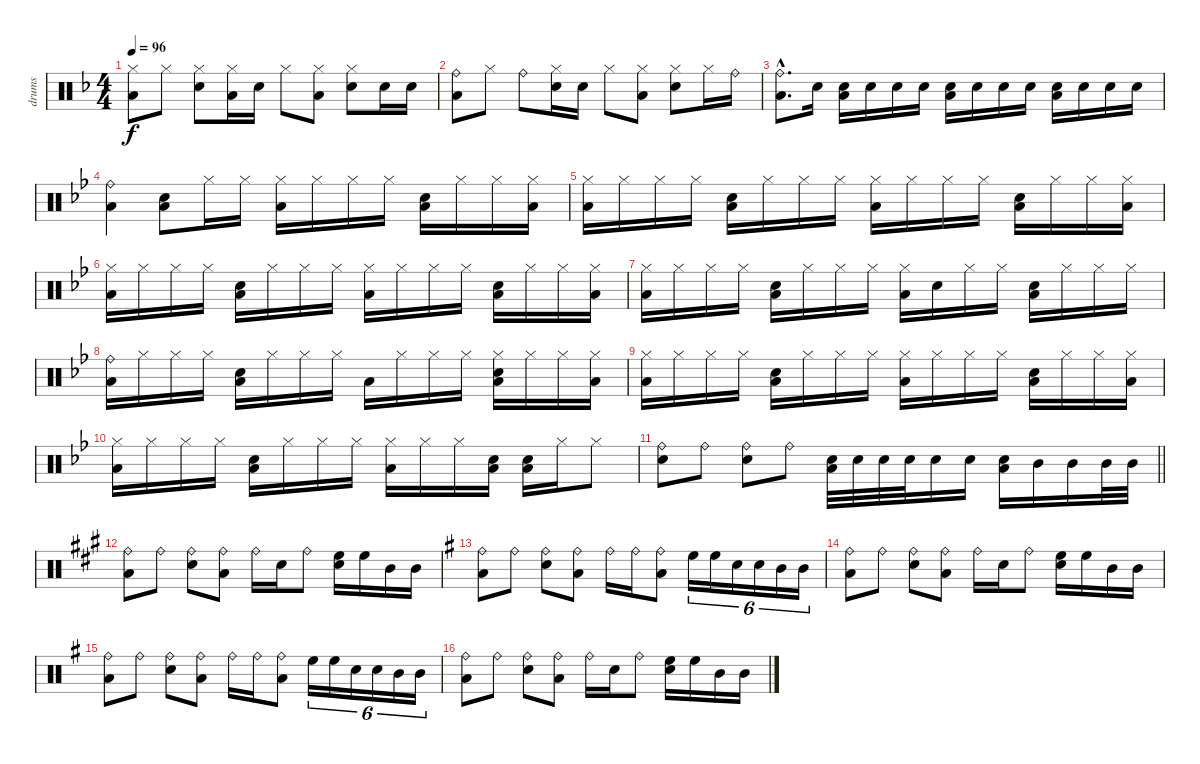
\track ("drums" "drums") {instrument percussion}
\staff {score}
\articulation defaults
\ts (4 4)
\tempo 96
\clef neutral
\ks f
("Hi-Hat (closed)" "Low Floor Tom (hit)").8{dy f} "Hi-Hat (closed)".8 ("Hi-Hat (closed)" "Electric Snare (hit)").8 ("Hi-Hat (closed)" "Low Floor Tom (hit)").16 "Electric Snare (hit)".16 "Hi-Hat (closed)".8 ("Hi-Hat (closed)" "Low Floor Tom (hit)").8 ("Hi-Hat (closed)" "Electric Snare (hit)").8 "Electric Snare (hit)".16 "Electric Snare (hit)".16 |
("Ride (bell)" "Low Floor Tom (hit)").8 "Hi-Hat (closed)".8 "Ride (bell)".8 ("Hi-Hat (closed)" "Electric Snare (hit)").16 "Electric Snare (hit)".16 "Hi-Hat (closed)".8 ("Hi-Hat (closed)" "Low Floor Tom (hit)").8 ("Hi-Hat (closed)" "Electric Snare (hit)").8 "Hi-Hat (closed)".16 "Ride (bell)".16 |
("Ride (bell)"{hac} "Low Floor Tom (hit)"{hac}).8{d} "Electric Snare (hit)".16 ("Electric Snare (hit)" "Low Floor Tom (hit)").16 "Electric Snare (hit)".16 "Electric Snare (hit)".16 "Electric Snare (hit)".16 ("Electric Snare (hit)" "Low Floor Tom (hit)").16 "Electric Snare (hit)".16 "Electric Snare (hit)".16 "Electric Snare (hit)".16 ("Electric Snare (hit)" "Low Floor Tom (hit)").16 "Electric Snare (hit)".16 "Electric Snare (hit)".16 "Electric Snare (hit)".16 |
\ks bb
("Ride (bell)" "Low Floor Tom (hit)").4 ("Electric Snare (hit)" "Low Floor Tom (hit)").8 "Hi-Hat (closed)".16 "Hi-Hat (closed)".16 ("Hi-Hat (closed)" "Low Floor Tom (hit)").16 "Hi-Hat (closed)".16 "Hi-Hat (closed)".16 "Hi-Hat (closed)".16 ("Electric Snare (hit)" "Low Floor Tom (hit)").16 "Hi-Hat (closed)".16 "Hi-Hat (closed)".16 ("Hi-Hat (closed)" "Low Floor Tom (hit)").16 |
("Hi-Hat (closed)" "Low Floor Tom (hit)").16 "Hi-Hat (closed)".16 "Hi-Hat (closed)".16 "Hi-Hat (closed)".16 ("Electric Snare (hit)" "Low Floor Tom (hit)").16 "Hi-Hat (closed)".16 "Hi-Hat (closed)".16 "Hi-Hat (closed)".16 ("Hi-Hat (closed)" "Low Floor Tom (hit)").16 "Hi-Hat (closed)".16 "Hi-Hat (closed)".16 "Hi-Hat (closed)".16 ("Electric Snare (hit)" "Low Floor Tom (hit)").16 "Hi-Hat (closed)".16 "Hi-Hat (closed)".16 ("Hi-Hat (closed)" "Low Floor Tom (hit)").16 |
("Hi-Hat (closed)" "Low Floor Tom (hit)").16 "Hi-Hat (closed)".16 "Hi-Hat (closed)".16 "Hi-Hat (closed)".16 ("Electric Snare (hit)" "Low Floor Tom (hit)").16 "Hi-Hat (closed)".16 "Hi-Hat (closed)".16 "Hi-Hat (closed)".16 ("Hi-Hat (closed)" "Low Floor Tom (hit)").16 "Hi-Hat (closed)".16 "Hi-Hat (closed)".16 "Hi-Hat (closed)".16 ("Electric Snare (hit)" "Low Floor Tom (hit)").16 "Hi-Hat (closed)".16 "Hi-Hat (closed)".16 ("Hi-Hat (closed)" "Low Floor Tom (hit)").16 |
("Hi-Hat (closed)" "Low Floor Tom (hit)").16 "Hi-Hat (closed)".16 "Hi-Hat (closed)".16 "Hi-Hat (closed)".16 ("Electric Snare (hit)" "Low Floor Tom (hit)").16 "Hi-Hat (closed)".16 "Hi-Hat (closed)".16 "Hi-Hat (closed)".16 ("Hi-Hat (closed)" "Low Floor Tom (hit)").16 "Electric Snare (hit)".16 "Hi-Hat (closed)".16 "Hi-Hat (closed)".16 ("Electric Snare (hit)" "Low Floor Tom (hit)").16 "Hi-Hat (closed)".16 "Hi-Hat (closed)".16 "Hi-Hat (closed)".16 |
("Ride (bell)" "Low Floor Tom (hit)").16 "Hi-Hat (closed)".16 "Hi-Hat (closed)".16 "Hi-Hat (closed)".16 ("Electric Snare (hit)" "Low Floor Tom (hit)").16 "Hi-Hat (closed)".16 "Hi-Hat (closed)".16 "Hi-Hat (closed)".16 "Low Floor Tom (hit)".16 "Hi-Hat (closed)".16 "Hi-Hat (closed)".16 "Hi-Hat (closed)".16 ("Hi-Hat (closed)" "Electric Snare (hit)" "Low Floor Tom (hit)").16 "Hi-Hat (closed)".16 "Hi-Hat (closed)".16 ("Hi-Hat (closed)" "Low Floor Tom (hit)").16 |
("Hi-Hat (closed)" "Low Floor Tom (hit)").16 "Hi-Hat (closed)".16 "Hi-Hat (closed)".16 "Hi-Hat (closed)".16 ("Electric Snare (hit)" "Low Floor Tom (hit)").16 "Hi-Hat (closed)".16 "Hi-Hat (closed)".16 "Hi-Hat (closed)".16 ("Hi-Hat (closed)" "Low Floor Tom (hit)").16 "Hi-Hat (closed)".16 "Hi-Hat (closed)".16 "Hi-Hat (closed)".16 ("Electric Snare (hit)" "Low Floor Tom (hit)").16 "Hi-Hat (closed)".16 "Hi-Hat (closed)".16 ("Hi-Hat (closed)" "Low Floor Tom (hit)").16 |
("Hi-Hat (closed)" "Low Floor Tom (hit)").16 "Hi-Hat (closed)".16 "Hi-Hat (closed)".16 "Hi-Hat (closed)".16 ("Electric Snare (hit)" "Low Floor Tom (hit)").16 "Hi-Hat (closed)".16 "Hi-Hat (closed)".16 "Hi-Hat (closed)".16 ("Hi-Hat (closed)" "Low Floor Tom (hit)").16 "Hi-Hat (closed)".16 "Hi-Hat (closed)".16 ("Electric Snare (hit)" "Low Floor Tom (hit)").16 ("Electric Snare (hit)" "Low Floor Tom (hit)").16 "Hi-Hat (closed)".16 "Hi-Hat (closed)".8 |
\barLineRight lightlight
("Ride (bell)" "Electric Snare (hit)").8 "Ride (bell)".8 ("Ride (bell)" "Electric Snare (hit)").8 "Ride (bell)".8 ("Electric Snare (hit)" "Low Floor Tom (hit)").32 "Electric Snare (hit)".32 "Electric Snare (hit)".32 "Electric Snare (hit)".32 "Electric Snare (hit)".16 "Electric Snare (hit)".16 ("Electric Snare (hit)" "Low Floor Tom (hit)").16 "Mid Tom (hit)".16 "Mid Tom (hit)".16 "Mid Tom (hit)".32 "Mid Tom (hit)".32 |
\ks a
("Ride (bell)" "Low Floor Tom (hit)").8 "Ride (bell)".8 ("Ride (bell)" "Electric Snare (hit)").8 ("Ride (bell)" "Low Floor Tom (hit)").8 "Ride (bell)".16 "Electric Snare (hit)".16 "Ride (bell)".8 ("High Floor Tom (hit)" "Electric Snare (hit)").16 "High Floor Tom (hit)".16 "Mid Tom (hit)".16 "Mid Tom (hit)".16 |
\ks g
("Ride (bell)" "Low Floor Tom (hit)").8 "Ride (bell)".8 ("Ride (bell)" "Electric Snare (hit)").8 ("Ride (bell)" "Low Floor Tom (hit)").8 "Ride (bell)".16 "Ride (bell)".16 ("Ride (bell)" "Low Floor Tom (hit)").8 "High Floor Tom (hit)".16{tu (6 4)} "High Floor Tom (hit)".16{tu (6 4)} "Electric Snare (hit)".16{tu (6 4)} "Electric Snare (hit)".16{tu (6 4)} "Mid Tom (hit)".16{tu (6 4)} "Mid Tom (hit)".16{tu (6 4)} |
("Ride (bell)" "Low Floor Tom (hit)").8 "Ride (bell)".8 ("Ride (bell)" "Electric Snare (hit)").8 ("Ride (bell)" "Low Floor Tom (hit)").8 "Ride (bell)".16 "Electric Snare (hit)".16 "Ride (bell)".8 ("High Floor Tom (hit)" "Electric Snare (hit)").16 "High Floor Tom (hit)".16 "Mid Tom (hit)".16 "Mid Tom (hit)".16 |
("Ride (bell)" "Low Floor Tom (hit)").8 "Ride (bell)".8 ("Ride (bell)" "Electric Snare (hit)").8 ("Ride (bell)" "Low Floor Tom (hit)").8 "Ride (bell)".16 "Ride (bell)".16 ("Ride (bell)" "Low Floor Tom (hit)").8 "High Floor Tom (hit)".16{tu (6 4)} "High Floor Tom (hit)".16{tu (6 4)} "Electric Snare (hit)".16{tu (6 4)} "Electric Snare (hit)".16{tu (6 4)} "Mid Tom (hit)".16{tu (6 4)} "Mid Tom (hit)".16{tu (6 4)} |
("Ride (bell)" "Low Floor Tom (hit)").8 "Ride (bell)".8 ("Ride (bell)" "Electric Snare (hit)").8 ("Ride (bell)" "Low Floor Tom (hit)").8 "Ride (bell)".16 "Electric Snare (hit)".16 "Ride (bell)".8 ("High Floor Tom (hit)" "Electric Snare (hit)").16 "High Floor Tom (hit)".16 "Mid Tom (hit)".16 "Mid Tom (hit)".16
